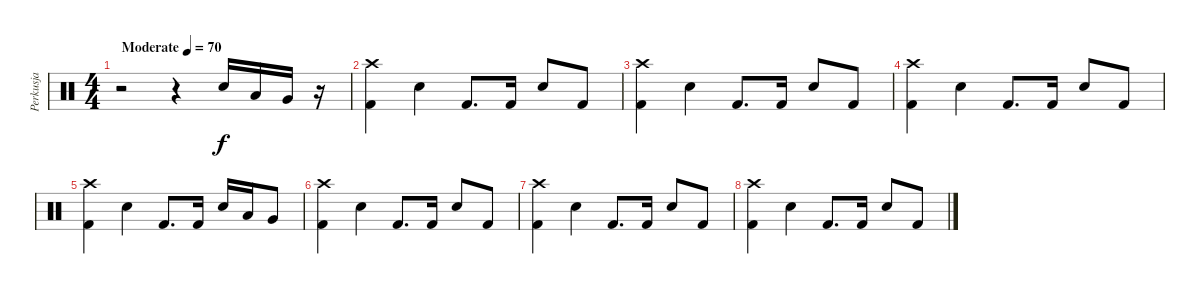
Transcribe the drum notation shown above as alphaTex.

\track ("Perkusja" "Perkusja") {instrument percussion}
\staff {score}
\articulation defaults
\ts (4 4)
\tempo (70 "Moderate")
\clef neutral
\ks c
r.2{dy f} r.4 "Snare (hit) 2".16 "Low Tom (hit)".16 "Very Low Tom (hit)".16 r.16 |
("Crash high (hit)" "Kick (hit) 2").4 "Snare (hit) 2".4 "Kick (hit) 2".8{d} "Kick (hit) 2".16 "Snare (hit) 2".8 "Kick (hit) 2".8 |
("Crash high (hit)" "Kick (hit) 2").4 "Snare (hit) 2".4 "Kick (hit) 2".8{d} "Kick (hit) 2".16 "Snare (hit) 2".8 "Kick (hit) 2".8 |
("Crash high (hit)" "Kick (hit) 2").4 "Snare (hit) 2".4 "Kick (hit) 2".8{d} "Kick (hit) 2".16 "Snare (hit) 2".8 "Kick (hit) 2".8 |
("Crash high (hit)" "Kick (hit) 2").4 "Snare (hit) 2".4 "Kick (hit) 2".8{d} "Kick (hit) 2".16 "Snare (hit) 2".16 "Low Tom (hit)".16 "Very Low Tom (hit)".8 |
("Crash high (hit)" "Kick (hit) 2").4 "Snare (hit) 2".4 "Kick (hit) 2".8{d} "Kick (hit) 2".16 "Snare (hit) 2".8 "Kick (hit) 2".8 |
("Crash high (hit)" "Kick (hit) 2").4 "Snare (hit) 2".4 "Kick (hit) 2".8{d} "Kick (hit) 2".16 "Snare (hit) 2".8 "Kick (hit) 2".8 |
("Crash high (hit)" "Kick (hit) 2").4 "Snare (hit) 2".4 "Kick (hit) 2".8{d} "Kick (hit) 2".16 "Snare (hit) 2".8 "Kick (hit) 2".8
